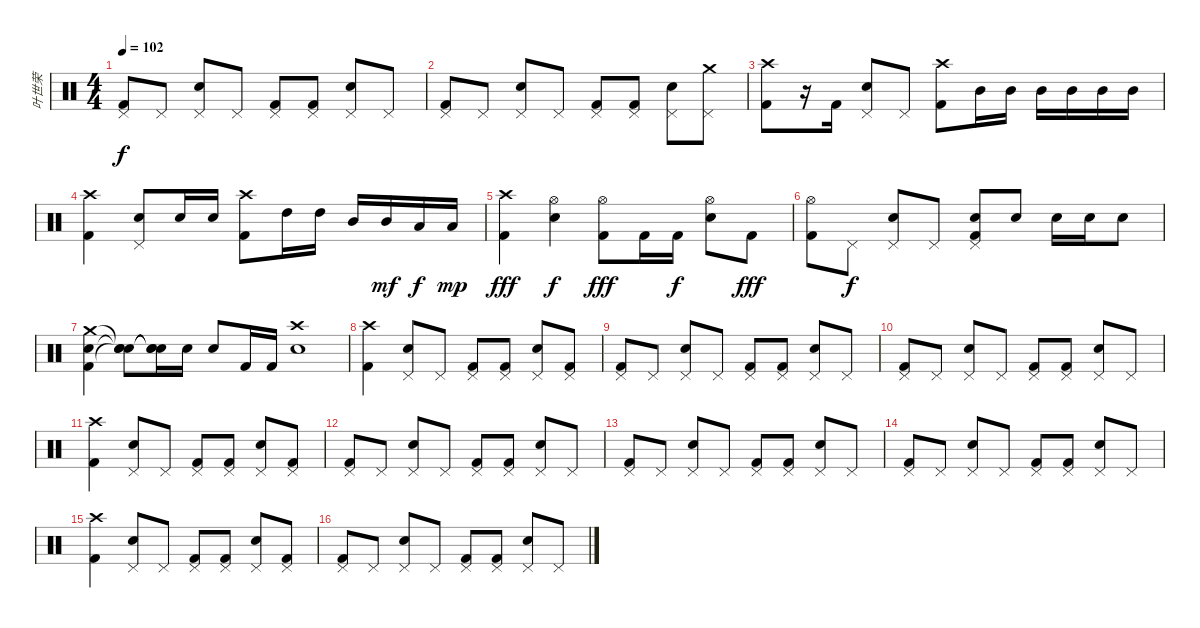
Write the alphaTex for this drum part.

\track ("叶世荣" "叶世荣") {instrument percussion}
\staff {score}
\articulation defaults
\ts (4 4)
\tempo 102
\clef neutral
\ks c
("Pedal Hi-Hat (hit)" "Kick (hit) 2").8{dy f} "Pedal Hi-Hat (hit)".8 ("Pedal Hi-Hat (hit)" "Snare (hit) 2").8 "Pedal Hi-Hat (hit)".8 ("Pedal Hi-Hat (hit)" "Kick (hit) 2").8 ("Pedal Hi-Hat (hit)" "Kick (hit) 2").8 ("Pedal Hi-Hat (hit)" "Snare (hit) 2").8 "Pedal Hi-Hat (hit)".8 |
("Pedal Hi-Hat (hit)" "Kick (hit) 2").8 "Pedal Hi-Hat (hit)".8 ("Pedal Hi-Hat (hit)" "Snare (hit) 2").8 "Pedal Hi-Hat (hit)".8 ("Pedal Hi-Hat (hit)" "Kick (hit) 2").8 ("Pedal Hi-Hat (hit)" "Kick (hit) 2").8 ("Pedal Hi-Hat (hit)" "Snare (hit) 2").8 ("Pedal Hi-Hat (hit)" "Crash medium (hit)").8 |
("Crash high (hit)" "Kick (hit) 2").8 r.16 "Kick (hit) 2".16 ("Pedal Hi-Hat (hit)" "Snare (hit) 2").8 "Pedal Hi-Hat (hit)".8 ("Crash high (hit)" "Kick (hit) 2").8 "Mid Tom (hit)".16 "Mid Tom (hit)".16 "Mid Tom (hit)".16 "Mid Tom (hit)".16 "Mid Tom (hit)".16 "Mid Tom (hit)".16 |
("Crash high (hit)" "Kick (hit) 2").4 ("Pedal Hi-Hat (hit)" "Snare (hit) 2").8 "Snare (hit) 2".16 "Snare (hit) 2".16 ("Crash high (hit)" "Kick (hit) 2").8 "High Tom (hit)".16 "High Tom (hit)".16 "Mid Tom (hit)".16 "Mid Tom (hit)".16{dy mf} "Low Tom (hit)".16{dy f} "Low Tom (hit)".16{dy mp} |
("Crash high (hit)" "Kick (hit) 2").4{dy fff} ("Hi-Hat (open)" "Snare (hit) 2").4{dy f} ("Hi-Hat (open)" "Kick (hit) 2").8{dy fff} "Kick (hit) 2".16 "Kick (hit) 2".16{dy f} ("Hi-Hat (open)" "Snare (hit) 2").8 "Kick (hit) 2".8{dy fff} |
("Hi-Hat (open)" "Kick (hit) 2").8 "Pedal Hi-Hat (hit)".8{dy f} ("Pedal Hi-Hat (hit)" "Snare (hit) 2").8 "Pedal Hi-Hat (hit)".8 ("Pedal Hi-Hat (hit)" "Snare (hit) 2" "Kick (hit) 2").8 "Snare (hit) 2".8 "Snare (hit) 2".16 "Snare (hit) 2".16 "Snare (hit) 2".8 |
("Crash medium (hit)" "Snare (hit) 2" "Kick (hit) 2").4 ("Snare (hit)"{t} "Snare (hit)"{t} "Snare (hit)"{t}).8 ("Snare (hit)"{t} "Snare (hit)"{t} "Snare (hit)"{t}).16 "Snare (hit) 2".16 "Snare (hit) 2".8 "Kick (hit) 2".16 "Kick (hit) 2".16 ("Snare (hit) 2" "Crash high (hit)").1 |
("Crash high (hit)" "Kick (hit) 2").4 ("Pedal Hi-Hat (hit)" "Snare (hit) 2").8 "Pedal Hi-Hat (hit)".8 ("Pedal Hi-Hat (hit)" "Kick (hit) 2").8 ("Pedal Hi-Hat (hit)" "Kick (hit) 2").8 ("Pedal Hi-Hat (hit)" "Snare (hit) 2").8 ("Pedal Hi-Hat (hit)" "Kick (hit) 2").8 |
("Pedal Hi-Hat (hit)" "Kick (hit) 2").8 "Pedal Hi-Hat (hit)".8 ("Pedal Hi-Hat (hit)" "Snare (hit) 2").8 "Pedal Hi-Hat (hit)".8 ("Pedal Hi-Hat (hit)" "Kick (hit) 2").8 ("Pedal Hi-Hat (hit)" "Kick (hit) 2").8 ("Pedal Hi-Hat (hit)" "Snare (hit) 2").8 "Pedal Hi-Hat (hit)".8 |
("Pedal Hi-Hat (hit)" "Kick (hit) 2").8 "Pedal Hi-Hat (hit)".8 ("Pedal Hi-Hat (hit)" "Snare (hit) 2").8 "Pedal Hi-Hat (hit)".8 ("Pedal Hi-Hat (hit)" "Kick (hit) 2").8 ("Pedal Hi-Hat (hit)" "Kick (hit) 2").8 ("Pedal Hi-Hat (hit)" "Snare (hit) 2").8 "Pedal Hi-Hat (hit)".8 |
("Crash high (hit)" "Kick (hit) 2").4 ("Pedal Hi-Hat (hit)" "Snare (hit) 2").8 "Pedal Hi-Hat (hit)".8 ("Pedal Hi-Hat (hit)" "Kick (hit) 2").8 ("Pedal Hi-Hat (hit)" "Kick (hit) 2").8 ("Pedal Hi-Hat (hit)" "Snare (hit) 2").8 ("Pedal Hi-Hat (hit)" "Kick (hit) 2").8 |
("Pedal Hi-Hat (hit)" "Kick (hit) 2").8 "Pedal Hi-Hat (hit)".8 ("Pedal Hi-Hat (hit)" "Snare (hit) 2").8 "Pedal Hi-Hat (hit)".8 ("Pedal Hi-Hat (hit)" "Kick (hit) 2").8 ("Pedal Hi-Hat (hit)" "Kick (hit) 2").8 ("Pedal Hi-Hat (hit)" "Snare (hit) 2").8 "Pedal Hi-Hat (hit)".8 |
("Pedal Hi-Hat (hit)" "Kick (hit) 2").8 "Pedal Hi-Hat (hit)".8 ("Pedal Hi-Hat (hit)" "Snare (hit) 2").8 "Pedal Hi-Hat (hit)".8 ("Pedal Hi-Hat (hit)" "Kick (hit) 2").8 ("Pedal Hi-Hat (hit)" "Kick (hit) 2").8 ("Pedal Hi-Hat (hit)" "Snare (hit) 2").8 "Pedal Hi-Hat (hit)".8 |
("Pedal Hi-Hat (hit)" "Kick (hit) 2").8 "Pedal Hi-Hat (hit)".8 ("Pedal Hi-Hat (hit)" "Snare (hit) 2").8 "Pedal Hi-Hat (hit)".8 ("Pedal Hi-Hat (hit)" "Kick (hit) 2").8 ("Pedal Hi-Hat (hit)" "Kick (hit) 2").8 ("Pedal Hi-Hat (hit)" "Snare (hit) 2").8 "Pedal Hi-Hat (hit)".8 |
("Crash high (hit)" "Kick (hit) 2").4 ("Pedal Hi-Hat (hit)" "Snare (hit) 2").8 "Pedal Hi-Hat (hit)".8 ("Pedal Hi-Hat (hit)" "Kick (hit) 2").8 ("Pedal Hi-Hat (hit)" "Kick (hit) 2").8 ("Pedal Hi-Hat (hit)" "Snare (hit) 2").8 ("Pedal Hi-Hat (hit)" "Kick (hit) 2").8 |
("Pedal Hi-Hat (hit)" "Kick (hit) 2").8 "Pedal Hi-Hat (hit)".8 ("Pedal Hi-Hat (hit)" "Snare (hit) 2").8 "Pedal Hi-Hat (hit)".8 ("Pedal Hi-Hat (hit)" "Kick (hit) 2").8 ("Pedal Hi-Hat (hit)" "Kick (hit) 2").8 ("Pedal Hi-Hat (hit)" "Snare (hit) 2").8 "Pedal Hi-Hat (hit)".8
